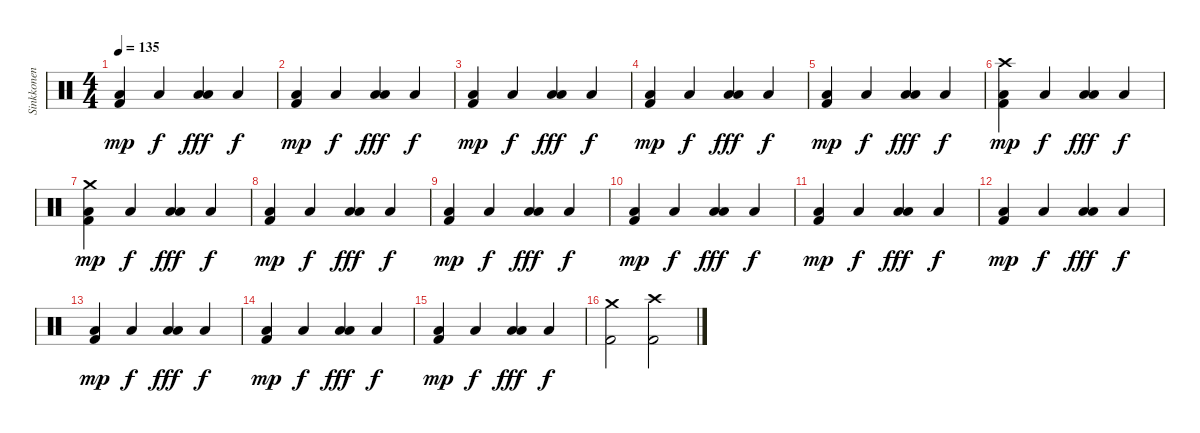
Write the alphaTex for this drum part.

\track ("Sinkkonen" "Sinkkonen") {instrument percussion}
\staff {score}
\articulation defaults
\ts (4 4)
\tempo 135
\clef neutral
\ks c
("Kick (hit) 2" "Low Floor Tom (hit)").4{dy mp} "Low Floor Tom (hit)".4{dy f} ("Low Floor Tom (hit)" "Low Floor Tom (hit)").4{dy fff} "Low Floor Tom (hit)".4{dy f} |
("Kick (hit) 2" "Low Floor Tom (hit)").4{dy mp} "Low Floor Tom (hit)".4{dy f} ("Low Floor Tom (hit)" "Low Floor Tom (hit)").4{dy fff} "Low Floor Tom (hit)".4{dy f} |
("Kick (hit) 2" "Low Floor Tom (hit)").4{dy mp} "Low Floor Tom (hit)".4{dy f} ("Low Floor Tom (hit)" "Low Floor Tom (hit)").4{dy fff} "Low Floor Tom (hit)".4{dy f} |
("Kick (hit) 2" "Low Floor Tom (hit)").4{dy mp} "Low Floor Tom (hit)".4{dy f} ("Low Floor Tom (hit)" "Low Floor Tom (hit)").4{dy fff} "Low Floor Tom (hit)".4{dy f} |
("Kick (hit) 2" "Low Floor Tom (hit)").4{dy mp} "Low Floor Tom (hit)".4{dy f} ("Low Floor Tom (hit)" "Low Floor Tom (hit)").4{dy fff} "Low Floor Tom (hit)".4{dy f} |
("Kick (hit) 2" "Crash high (hit)" "Low Floor Tom (hit)").4{dy mp} "Low Floor Tom (hit)".4{dy f} ("Low Floor Tom (hit)" "Low Floor Tom (hit)").4{dy fff} "Low Floor Tom (hit)".4{dy f} |
("Kick (hit) 2" "Crash medium (hit)" "Low Floor Tom (hit)").4{dy mp} "Low Floor Tom (hit)".4{dy f} ("Low Floor Tom (hit)" "Low Floor Tom (hit)").4{dy fff} "Low Floor Tom (hit)".4{dy f} |
("Kick (hit) 2" "Low Floor Tom (hit)").4{dy mp} "Low Floor Tom (hit)".4{dy f} ("Low Floor Tom (hit)" "Low Floor Tom (hit)").4{dy fff} "Low Floor Tom (hit)".4{dy f} |
("Kick (hit) 2" "Low Floor Tom (hit)").4{dy mp} "Low Floor Tom (hit)".4{dy f} ("Low Floor Tom (hit)" "Low Floor Tom (hit)").4{dy fff} "Low Floor Tom (hit)".4{dy f} |
("Kick (hit) 2" "Low Floor Tom (hit)").4{dy mp} "Low Floor Tom (hit)".4{dy f} ("Low Floor Tom (hit)" "Low Floor Tom (hit)").4{dy fff} "Low Floor Tom (hit)".4{dy f} |
("Kick (hit) 2" "Low Floor Tom (hit)").4{dy mp} "Low Floor Tom (hit)".4{dy f} ("Low Floor Tom (hit)" "Low Floor Tom (hit)").4{dy fff} "Low Floor Tom (hit)".4{dy f} |
("Kick (hit) 2" "Low Floor Tom (hit)").4{dy mp} "Low Floor Tom (hit)".4{dy f} ("Low Floor Tom (hit)" "Low Floor Tom (hit)").4{dy fff} "Low Floor Tom (hit)".4{dy f} |
("Kick (hit) 2" "Low Floor Tom (hit)").4{dy mp} "Low Floor Tom (hit)".4{dy f} ("Low Floor Tom (hit)" "Low Floor Tom (hit)").4{dy fff} "Low Floor Tom (hit)".4{dy f} |
("Kick (hit) 2" "Low Floor Tom (hit)").4{dy mp} "Low Floor Tom (hit)".4{dy f} ("Low Floor Tom (hit)" "Low Floor Tom (hit)").4{dy fff} "Low Floor Tom (hit)".4{dy f} |
("Kick (hit) 2" "Low Floor Tom (hit)").4{dy mp} "Low Floor Tom (hit)".4{dy f} ("Low Floor Tom (hit)" "Low Floor Tom (hit)").4{dy fff} "Low Floor Tom (hit)".4{dy f} |
("Kick (hit) 2" "Crash medium (hit)").2 ("Kick (hit) 2" "Crash high (hit)").2
